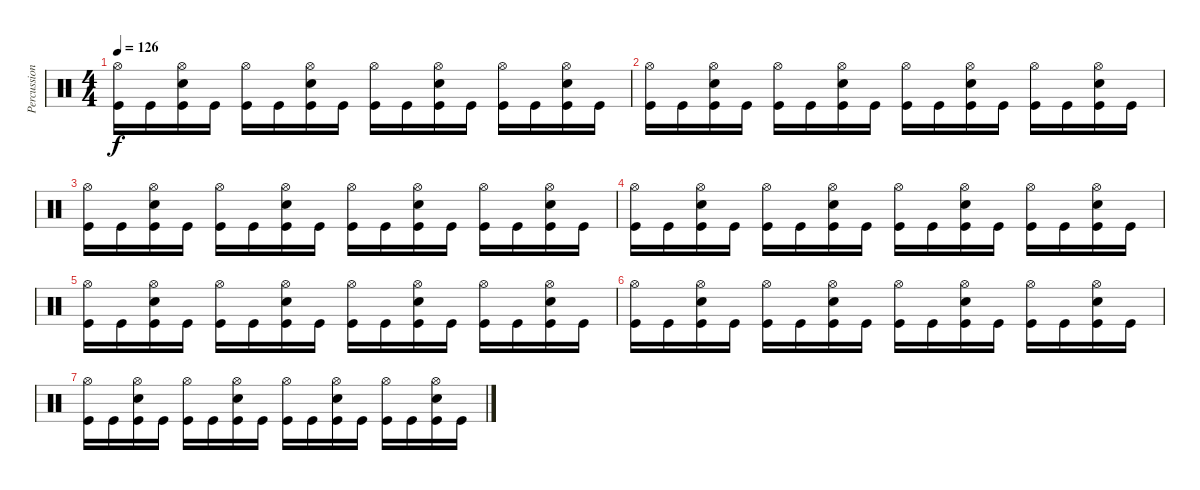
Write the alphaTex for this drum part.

\track ("Percussions" "Percussion") {instrument percussion}
\staff {score}
\articulation defaults
\ts (4 4)
\tempo 126
\clef neutral
\ks c
("Kick (hit)" "Hi-Hat (open)").16{dy f} "Kick (hit)".16 ("Kick (hit)" "Electric Snare (hit)" "Hi-Hat (open)").16 "Kick (hit)".16 ("Kick (hit)" "Hi-Hat (open)").16 "Kick (hit)".16 ("Kick (hit)" "Electric Snare (hit)" "Hi-Hat (open)").16 "Kick (hit)".16 ("Kick (hit)" "Hi-Hat (open)").16 "Kick (hit)".16 ("Kick (hit)" "Electric Snare (hit)" "Hi-Hat (open)").16 "Kick (hit)".16 ("Kick (hit)" "Hi-Hat (open)").16 "Kick (hit)".16 ("Kick (hit)" "Electric Snare (hit)" "Hi-Hat (open)").16 "Kick (hit)".16 |
("Kick (hit)" "Hi-Hat (open)").16 "Kick (hit)".16 ("Kick (hit)" "Electric Snare (hit)" "Hi-Hat (open)").16 "Kick (hit)".16 ("Kick (hit)" "Hi-Hat (open)").16 "Kick (hit)".16 ("Kick (hit)" "Electric Snare (hit)" "Hi-Hat (open)").16 "Kick (hit)".16 ("Kick (hit)" "Hi-Hat (open)").16 "Kick (hit)".16 ("Kick (hit)" "Electric Snare (hit)" "Hi-Hat (open)").16 "Kick (hit)".16 ("Kick (hit)" "Hi-Hat (open)").16 "Kick (hit)".16 ("Kick (hit)" "Electric Snare (hit)" "Hi-Hat (open)").16 "Kick (hit)".16 |
("Kick (hit)" "Hi-Hat (open)").16 "Kick (hit)".16 ("Kick (hit)" "Electric Snare (hit)" "Hi-Hat (open)").16 "Kick (hit)".16 ("Kick (hit)" "Hi-Hat (open)").16 "Kick (hit)".16 ("Kick (hit)" "Electric Snare (hit)" "Hi-Hat (open)").16 "Kick (hit)".16 ("Kick (hit)" "Hi-Hat (open)").16 "Kick (hit)".16 ("Kick (hit)" "Electric Snare (hit)" "Hi-Hat (open)").16 "Kick (hit)".16 ("Kick (hit)" "Hi-Hat (open)").16 "Kick (hit)".16 ("Kick (hit)" "Electric Snare (hit)" "Hi-Hat (open)").16 "Kick (hit)".16 |
("Kick (hit)" "Hi-Hat (open)").16 "Kick (hit)".16 ("Kick (hit)" "Electric Snare (hit)" "Hi-Hat (open)").16 "Kick (hit)".16 ("Kick (hit)" "Hi-Hat (open)").16 "Kick (hit)".16 ("Kick (hit)" "Electric Snare (hit)" "Hi-Hat (open)").16 "Kick (hit)".16 ("Kick (hit)" "Hi-Hat (open)").16 "Kick (hit)".16 ("Kick (hit)" "Electric Snare (hit)" "Hi-Hat (open)").16 "Kick (hit)".16 ("Kick (hit)" "Hi-Hat (open)").16 "Kick (hit)".16 ("Kick (hit)" "Electric Snare (hit)" "Hi-Hat (open)").16 "Kick (hit)".16 |
("Kick (hit)" "Hi-Hat (open)").16 "Kick (hit)".16 ("Kick (hit)" "Electric Snare (hit)" "Hi-Hat (open)").16 "Kick (hit)".16 ("Kick (hit)" "Hi-Hat (open)").16 "Kick (hit)".16 ("Kick (hit)" "Electric Snare (hit)" "Hi-Hat (open)").16 "Kick (hit)".16 ("Kick (hit)" "Hi-Hat (open)").16 "Kick (hit)".16 ("Kick (hit)" "Electric Snare (hit)" "Hi-Hat (open)").16 "Kick (hit)".16 ("Kick (hit)" "Hi-Hat (open)").16 "Kick (hit)".16 ("Kick (hit)" "Electric Snare (hit)" "Hi-Hat (open)").16 "Kick (hit)".16 |
("Kick (hit)" "Hi-Hat (open)").16 "Kick (hit)".16 ("Kick (hit)" "Electric Snare (hit)" "Hi-Hat (open)").16 "Kick (hit)".16 ("Kick (hit)" "Hi-Hat (open)").16 "Kick (hit)".16 ("Kick (hit)" "Electric Snare (hit)" "Hi-Hat (open)").16 "Kick (hit)".16 ("Kick (hit)" "Hi-Hat (open)").16 "Kick (hit)".16 ("Kick (hit)" "Electric Snare (hit)" "Hi-Hat (open)").16 "Kick (hit)".16 ("Kick (hit)" "Hi-Hat (open)").16 "Kick (hit)".16 ("Kick (hit)" "Electric Snare (hit)" "Hi-Hat (open)").16 "Kick (hit)".16 |
("Kick (hit)" "Hi-Hat (open)").16 "Kick (hit)".16 ("Kick (hit)" "Electric Snare (hit)" "Hi-Hat (open)").16 "Kick (hit)".16 ("Kick (hit)" "Hi-Hat (open)").16 "Kick (hit)".16 ("Kick (hit)" "Electric Snare (hit)" "Hi-Hat (open)").16 "Kick (hit)".16 ("Kick (hit)" "Hi-Hat (open)").16 "Kick (hit)".16 ("Kick (hit)" "Electric Snare (hit)" "Hi-Hat (open)").16 "Kick (hit)".16 ("Kick (hit)" "Hi-Hat (open)").16 "Kick (hit)".16 ("Kick (hit)" "Electric Snare (hit)" "Hi-Hat (open)").16 "Kick (hit)".16
